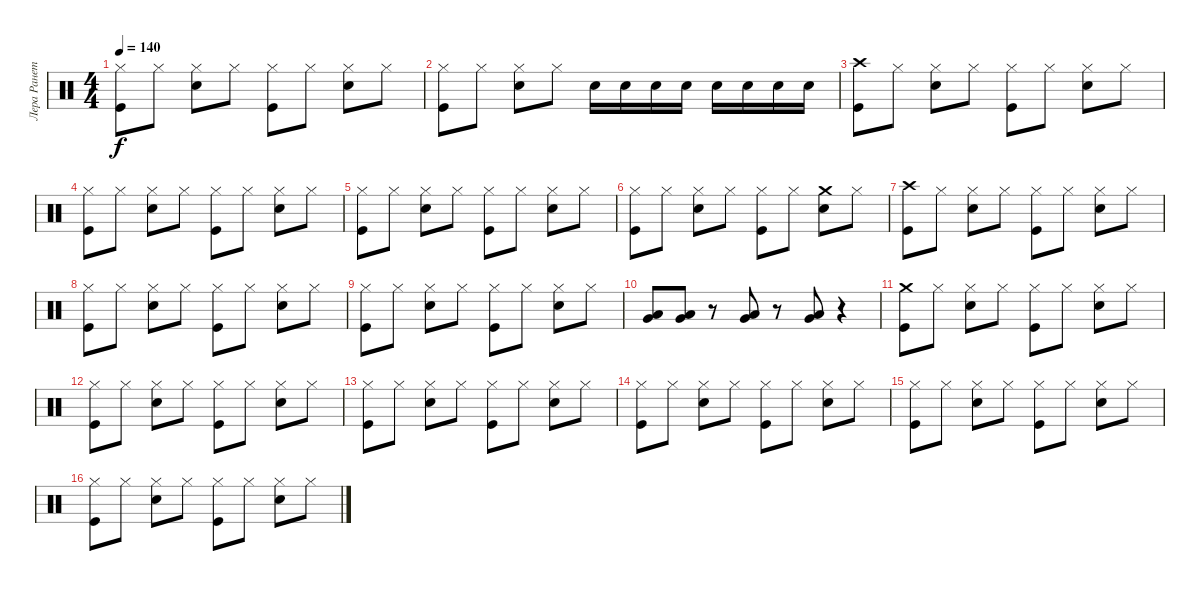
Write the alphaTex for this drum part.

\track ("Лера Ранетка" "Лера Ранет") {instrument percussion}
\staff {score}
\articulation defaults
\ts (4 4)
\tempo 140
\clef neutral
\ks c
("Hi-Hat (closed)" "Kick (hit)").8{dy f} "Hi-Hat (closed)".8 ("Hi-Hat (closed)" "Electric Snare (hit)").8 "Hi-Hat (closed)".8 ("Hi-Hat (closed)" "Kick (hit)").8 "Hi-Hat (closed)".8 ("Hi-Hat (closed)" "Electric Snare (hit)").8 "Hi-Hat (closed)".8 |
("Hi-Hat (closed)" "Kick (hit)").8 "Hi-Hat (closed)".8 ("Hi-Hat (closed)" "Electric Snare (hit)").8 "Hi-Hat (closed)".8 "Electric Snare (hit)".16 "Electric Snare (hit)".16 "Electric Snare (hit)".16 "Electric Snare (hit)".16 "Electric Snare (hit)".16 "Electric Snare (hit)".16 "Electric Snare (hit)".16 "Electric Snare (hit)".16 |
("Crash high (hit)" "Kick (hit)").8 "Hi-Hat (closed)".8 ("Hi-Hat (closed)" "Electric Snare (hit)").8 "Hi-Hat (closed)".8 ("Hi-Hat (closed)" "Kick (hit)").8 "Hi-Hat (closed)".8 ("Hi-Hat (closed)" "Electric Snare (hit)").8 "Hi-Hat (closed)".8 |
("Hi-Hat (closed)" "Kick (hit)").8 "Hi-Hat (closed)".8 ("Hi-Hat (closed)" "Electric Snare (hit)").8 "Hi-Hat (closed)".8 ("Hi-Hat (closed)" "Kick (hit)").8 "Hi-Hat (closed)".8 ("Hi-Hat (closed)" "Electric Snare (hit)").8 "Hi-Hat (closed)".8 |
("Hi-Hat (closed)" "Kick (hit)").8 "Hi-Hat (closed)".8 ("Hi-Hat (closed)" "Electric Snare (hit)").8 "Hi-Hat (closed)".8 ("Hi-Hat (closed)" "Kick (hit)").8 "Hi-Hat (closed)".8 ("Hi-Hat (closed)" "Electric Snare (hit)").8 "Hi-Hat (closed)".8 |
("Hi-Hat (closed)" "Kick (hit)").8 "Hi-Hat (closed)".8 ("Hi-Hat (closed)" "Electric Snare (hit)").8 "Hi-Hat (closed)".8 ("Hi-Hat (closed)" "Kick (hit)").8 "Hi-Hat (closed)".8 ("Crash medium (hit)" "Electric Snare (hit)").8 "Hi-Hat (closed)".8 |
("Crash high (hit)" "Kick (hit)").8 "Hi-Hat (closed)".8 ("Hi-Hat (closed)" "Electric Snare (hit)").8 "Hi-Hat (closed)".8 ("Hi-Hat (closed)" "Kick (hit)").8 "Hi-Hat (closed)".8 ("Hi-Hat (closed)" "Electric Snare (hit)").8 "Hi-Hat (closed)".8 |
("Hi-Hat (closed)" "Kick (hit)").8 "Hi-Hat (closed)".8 ("Hi-Hat (closed)" "Electric Snare (hit)").8 "Hi-Hat (closed)".8 ("Hi-Hat (closed)" "Kick (hit)").8 "Hi-Hat (closed)".8 ("Hi-Hat (closed)" "Electric Snare (hit)").8 "Hi-Hat (closed)".8 |
("Hi-Hat (closed)" "Kick (hit)").8 "Hi-Hat (closed)".8 ("Hi-Hat (closed)" "Electric Snare (hit)").8 "Hi-Hat (closed)".8 ("Hi-Hat (closed)" "Kick (hit)").8 "Hi-Hat (closed)".8 ("Hi-Hat (closed)" "Electric Snare (hit)").8 "Hi-Hat (closed)".8 |
("Low Tom (hit)" "Very Low Tom (hit)").8 ("Low Tom (hit)" "Very Low Tom (hit)").8 r.8 ("Low Tom (hit)" "Very Low Tom (hit)").8 r.8 ("Low Tom (hit)" "Very Low Tom (hit)").8 r.4 |
("Crash medium (hit)" "Kick (hit)").8 "Hi-Hat (closed)".8 ("Hi-Hat (closed)" "Electric Snare (hit)").8 "Hi-Hat (closed)".8 ("Hi-Hat (closed)" "Kick (hit)").8 "Hi-Hat (closed)".8 ("Hi-Hat (closed)" "Electric Snare (hit)").8 "Hi-Hat (closed)".8 |
("Hi-Hat (closed)" "Kick (hit)").8 "Hi-Hat (closed)".8 ("Hi-Hat (closed)" "Electric Snare (hit)").8 "Hi-Hat (closed)".8 ("Hi-Hat (closed)" "Kick (hit)").8 "Hi-Hat (closed)".8 ("Hi-Hat (closed)" "Electric Snare (hit)").8 "Hi-Hat (closed)".8 |
("Hi-Hat (closed)" "Kick (hit)").8 "Hi-Hat (closed)".8 ("Hi-Hat (closed)" "Electric Snare (hit)").8 "Hi-Hat (closed)".8 ("Hi-Hat (closed)" "Kick (hit)").8 "Hi-Hat (closed)".8 ("Hi-Hat (closed)" "Electric Snare (hit)").8 "Hi-Hat (closed)".8 |
("Hi-Hat (closed)" "Kick (hit)").8 "Hi-Hat (closed)".8 ("Hi-Hat (closed)" "Electric Snare (hit)").8 "Hi-Hat (closed)".8 ("Hi-Hat (closed)" "Kick (hit)").8 "Hi-Hat (closed)".8 ("Hi-Hat (closed)" "Electric Snare (hit)").8 "Hi-Hat (closed)".8 |
("Hi-Hat (closed)" "Kick (hit)").8 "Hi-Hat (closed)".8 ("Hi-Hat (closed)" "Electric Snare (hit)").8 "Hi-Hat (closed)".8 ("Hi-Hat (closed)" "Kick (hit)").8 "Hi-Hat (closed)".8 ("Hi-Hat (closed)" "Electric Snare (hit)").8 "Hi-Hat (closed)".8 |
("Hi-Hat (closed)" "Kick (hit)").8 "Hi-Hat (closed)".8 ("Hi-Hat (closed)" "Electric Snare (hit)").8 "Hi-Hat (closed)".8 ("Hi-Hat (closed)" "Kick (hit)").8 "Hi-Hat (closed)".8 ("Hi-Hat (closed)" "Electric Snare (hit)").8 "Hi-Hat (closed)".8
